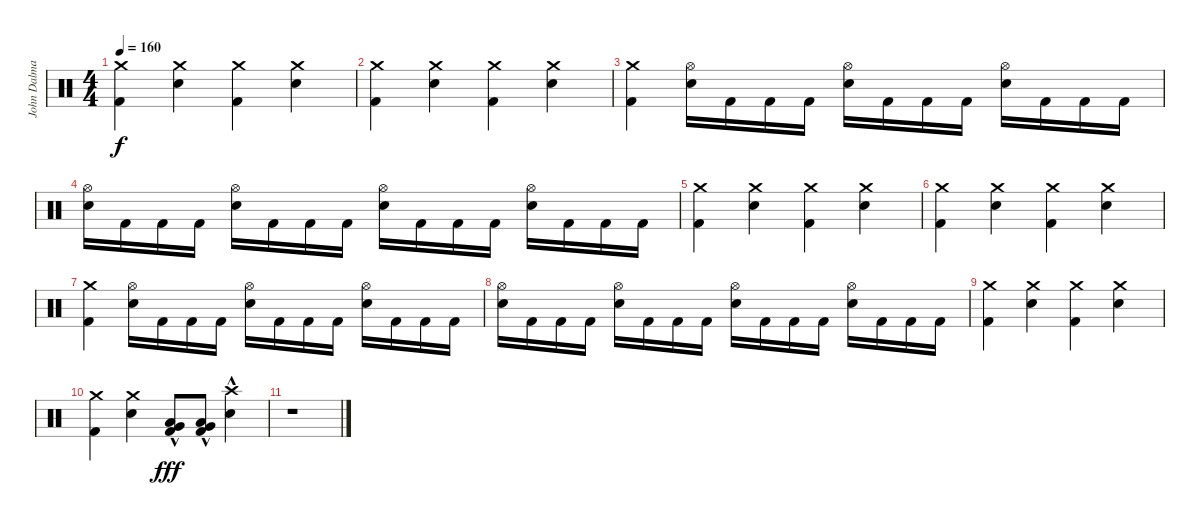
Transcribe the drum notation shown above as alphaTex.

\track ("John Dalmayian - Drums" "John Dalma") {instrument percussion}
\staff {score}
\articulation defaults
\ts (4 4)
\tempo 160
\clef neutral
\ks c
("Crash medium (hit)" "Kick (hit) 2").4{dy f} ("Crash medium (hit)" "Snare (hit) 2").4 ("Crash medium (hit)" "Kick (hit) 2").4 ("Crash medium (hit)" "Snare (hit) 2").4 |
("Crash medium (hit)" "Kick (hit) 2").4 ("Crash medium (hit)" "Snare (hit) 2").4 ("Crash medium (hit)" "Kick (hit) 2").4 ("Crash medium (hit)" "Snare (hit) 2").4 |
("Crash medium (hit)" "Kick (hit) 2").4 ("Hi-Hat (open)" "Snare (hit) 2").16 "Kick (hit) 2".16 "Kick (hit) 2".16 "Kick (hit) 2".16 ("Hi-Hat (open)" "Snare (hit) 2").16 "Kick (hit) 2".16 "Kick (hit) 2".16 "Kick (hit) 2".16 ("Hi-Hat (open)" "Snare (hit) 2").16 "Kick (hit) 2".16 "Kick (hit) 2".16 "Kick (hit) 2".16 |
("Hi-Hat (open)" "Snare (hit) 2").16 "Kick (hit) 2".16 "Kick (hit) 2".16 "Kick (hit) 2".16 ("Hi-Hat (open)" "Snare (hit) 2").16 "Kick (hit) 2".16 "Kick (hit) 2".16 "Kick (hit) 2".16 ("Hi-Hat (open)" "Snare (hit) 2").16 "Kick (hit) 2".16 "Kick (hit) 2".16 "Kick (hit) 2".16 ("Hi-Hat (open)" "Snare (hit) 2").16 "Kick (hit) 2".16 "Kick (hit) 2".16 "Kick (hit) 2".16 |
("Crash medium (hit)" "Kick (hit) 2").4 ("Crash medium (hit)" "Snare (hit) 2").4 ("Crash medium (hit)" "Kick (hit) 2").4 ("Crash medium (hit)" "Snare (hit) 2").4 |
("Crash medium (hit)" "Kick (hit) 2").4 ("Crash medium (hit)" "Snare (hit) 2").4 ("Crash medium (hit)" "Kick (hit) 2").4 ("Crash medium (hit)" "Snare (hit) 2").4 |
("Crash medium (hit)" "Kick (hit) 2").4 ("Hi-Hat (open)" "Snare (hit) 2").16 "Kick (hit) 2".16 "Kick (hit) 2".16 "Kick (hit) 2".16 ("Hi-Hat (open)" "Snare (hit) 2").16 "Kick (hit) 2".16 "Kick (hit) 2".16 "Kick (hit) 2".16 ("Hi-Hat (open)" "Snare (hit) 2").16 "Kick (hit) 2".16 "Kick (hit) 2".16 "Kick (hit) 2".16 |
("Hi-Hat (open)" "Snare (hit) 2").16 "Kick (hit) 2".16 "Kick (hit) 2".16 "Kick (hit) 2".16 ("Hi-Hat (open)" "Snare (hit) 2").16 "Kick (hit) 2".16 "Kick (hit) 2".16 "Kick (hit) 2".16 ("Hi-Hat (open)" "Snare (hit) 2").16 "Kick (hit) 2".16 "Kick (hit) 2".16 "Kick (hit) 2".16 ("Hi-Hat (open)" "Snare (hit) 2").16 "Kick (hit) 2".16 "Kick (hit) 2".16 "Kick (hit) 2".16 |
("Crash medium (hit)" "Kick (hit) 2").4 ("Crash medium (hit)" "Snare (hit) 2").4 ("Crash medium (hit)" "Kick (hit) 2").4 ("Crash medium (hit)" "Snare (hit) 2").4 |
("Crash medium (hit)" "Kick (hit) 2").4 ("Crash medium (hit)" "Snare (hit) 2").4 ("Kick (hit) 2" "Low Floor Tom (hit)"{hac} "Very Low Tom (hit)"{hac}).8{dy fff} ("Kick (hit) 2" "Low Floor Tom (hit)"{hac} "Very Low Tom (hit)"{hac}).8 ("Crash high (hit)"{hac} "Snare (hit) 2"{hac}).4 |
r.1
